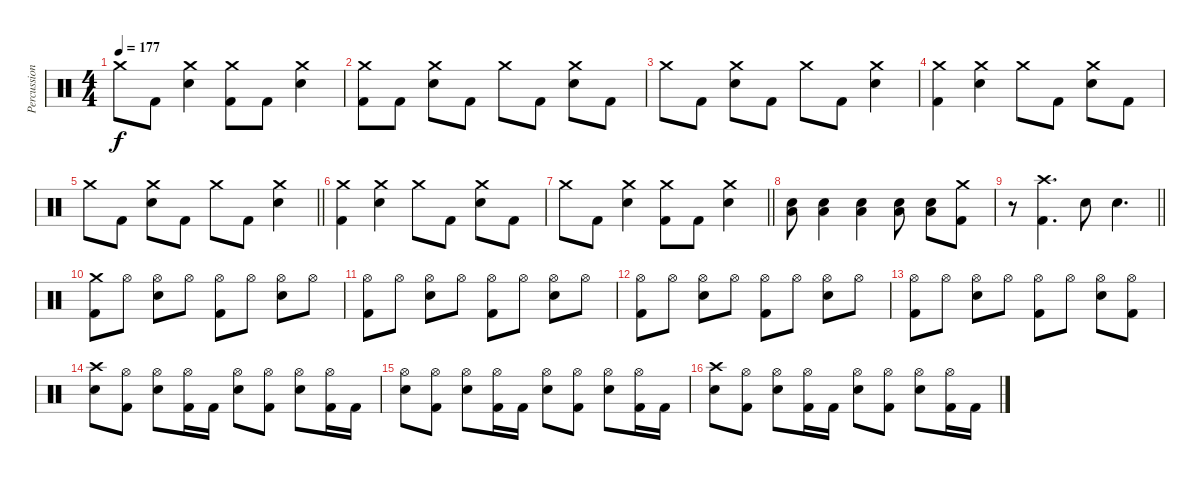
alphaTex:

\track ("Percussion" "Percussion") {instrument percussion}
\staff {score}
\articulation defaults
\ts (4 4)
\tempo 177
\clef neutral
\ks c "Crash medium (hit)".8{dy f} "Kick (hit) 2".8
("Crash medium (hit)" "Snare (hit) 2").4 ("Crash medium (hit)" "Kick (hit) 2").8 "Kick (hit) 2".8 ("Crash medium (hit)" "Snare (hit) 2").4 |
("Crash medium (hit)" "Kick (hit) 2").8 "Kick (hit) 2".8 ("Crash medium (hit)" "Snare (hit) 2").8 "Kick (hit) 2".8 "Crash medium (hit)".8 "Kick (hit) 2".8 ("Crash medium (hit)" "Snare (hit) 2").8 "Kick (hit) 2".8 |
"Crash medium (hit)".8 "Kick (hit) 2".8 ("Crash medium (hit)" "Snare (hit) 2").8 "Kick (hit) 2".8 "Crash medium (hit)".8 "Kick (hit) 2".8 ("Crash medium (hit)" "Snare (hit) 2").4 |
("Crash medium (hit)" "Kick (hit) 2").4 ("Crash medium (hit)" "Snare (hit) 2").4 "Crash medium (hit)".8 "Kick (hit) 2".8 ("Crash medium (hit)" "Snare (hit) 2").8 "Kick (hit) 2".8 |
\barLineRight lightlight "Crash medium (hit)".8 "Kick (hit) 2".8
("Crash medium (hit)" "Snare (hit) 2").8 "Kick (hit) 2".8 "Crash medium (hit)".8 "Kick (hit) 2".8 ("Crash medium (hit)" "Snare (hit) 2").4 |
("Crash medium (hit)" "Kick (hit) 2").4 ("Crash medium (hit)" "Snare (hit) 2").4 "Crash medium (hit)".8 "Kick (hit) 2".8 ("Crash medium (hit)" "Snare (hit) 2").8 "Kick (hit) 2".8 |
\barLineRight lightlight "Crash medium (hit)".8 "Kick (hit) 2".8
("Crash medium (hit)" "Snare (hit) 2").4 ("Crash medium (hit)" "Kick (hit) 2").8 "Kick (hit) 2".8 ("Crash medium (hit)" "Snare (hit) 2").4 |
("Snare (hit) 2" "Low Floor Tom (hit)").8 ("Snare (hit) 2" "Low Floor Tom (hit)").4 ("Snare (hit) 2" "Low Floor Tom (hit)").4 ("Snare (hit) 2" "Low Floor Tom (hit)").8 ("Snare (hit) 2" "Low Floor Tom (hit)").8 ("Crash medium (hit)" "Kick (hit) 2").8 |
\barLineRight lightlight
r.8 ("Crash high (hit)" "Kick (hit) 2").4{d} "Snare (hit) 2".8 "Snare (hit) 2".4{d} |
("Crash medium (hit)" "Kick (hit) 2").8 "Hi-Hat (open)".8 ("Hi-Hat (open)" "Snare (hit) 2").8 "Hi-Hat (open)".8 ("Hi-Hat (open)" "Kick (hit) 2").8 "Hi-Hat (open)".8 ("Hi-Hat (open)" "Snare (hit) 2").8 "Hi-Hat (open)".8 |
("Hi-Hat (open)" "Kick (hit) 2").8 "Hi-Hat (open)".8 ("Hi-Hat (open)" "Snare (hit) 2").8 "Hi-Hat (open)".8 ("Hi-Hat (open)" "Kick (hit) 2").8 "Hi-Hat (open)".8 ("Hi-Hat (open)" "Snare (hit) 2").8 "Hi-Hat (open)".8 |
("Hi-Hat (open)" "Kick (hit) 2").8 "Hi-Hat (open)".8 ("Hi-Hat (open)" "Snare (hit) 2").8 "Hi-Hat (open)".8 ("Hi-Hat (open)" "Kick (hit) 2").8 "Hi-Hat (open)".8 ("Hi-Hat (open)" "Snare (hit) 2").8 "Hi-Hat (open)".8 |
("Hi-Hat (open)" "Kick (hit) 2").8 "Hi-Hat (open)".8 ("Hi-Hat (open)" "Snare (hit) 2").8 "Hi-Hat (open)".8 ("Hi-Hat (open)" "Kick (hit) 2").8 "Hi-Hat (open)".8 ("Hi-Hat (open)" "Snare (hit) 2").8 ("Hi-Hat (open)" "Kick (hit) 2").8 |
("Crash high (hit)" "Snare (hit) 2").8 ("Hi-Hat (open)" "Kick (hit) 2").8 ("Hi-Hat (open)" "Snare (hit) 2").8 ("Hi-Hat (open)" "Kick (hit) 2").16 "Kick (hit) 2".16 ("Hi-Hat (open)" "Snare (hit) 2").8 ("Hi-Hat (open)" "Kick (hit) 2").8 ("Hi-Hat (open)" "Snare (hit) 2").8 ("Hi-Hat (open)" "Kick (hit) 2").16 "Kick (hit) 2".16 |
("Hi-Hat (open)" "Snare (hit) 2").8 ("Hi-Hat (open)" "Kick (hit) 2").8 ("Hi-Hat (open)" "Snare (hit) 2").8 ("Hi-Hat (open)" "Kick (hit) 2").16 "Kick (hit) 2".16 ("Hi-Hat (open)" "Snare (hit) 2").8 ("Hi-Hat (open)" "Kick (hit) 2").8 ("Hi-Hat (open)" "Snare (hit) 2").8 ("Hi-Hat (open)" "Kick (hit) 2").16 "Kick (hit) 2".16 |
("Crash high (hit)" "Snare (hit) 2").8 ("Hi-Hat (open)" "Kick (hit) 2").8 ("Hi-Hat (open)" "Snare (hit) 2").8 ("Hi-Hat (open)" "Kick (hit) 2").16 "Kick (hit) 2".16 ("Hi-Hat (open)" "Snare (hit) 2").8 ("Hi-Hat (open)" "Kick (hit) 2").8 ("Hi-Hat (open)" "Snare (hit) 2").8 ("Hi-Hat (open)" "Kick (hit) 2").16 "Kick (hit) 2".16
